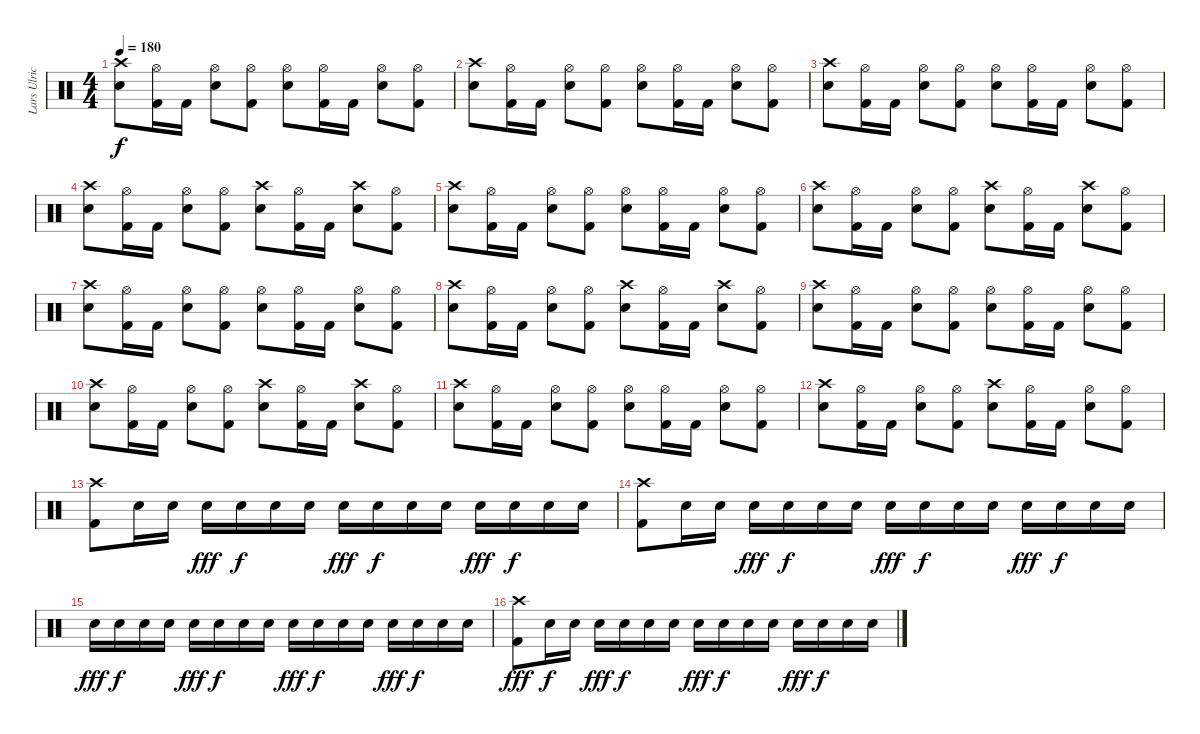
\track ("Lars Ulrich" "Lars Ulric") {instrument percussion}
\staff {score}
\articulation defaults
\ts (4 4)
\tempo 180
\clef neutral
\ks c
("Snare (hit) 2" "Crash high (hit)").8{dy f} ("Kick (hit) 2" "Hi-Hat (open)").16 "Kick (hit) 2".16 ("Snare (hit) 2" "Hi-Hat (open)").8 ("Kick (hit) 2" "Hi-Hat (open)").8 ("Snare (hit) 2" "Hi-Hat (open)").8 ("Kick (hit) 2" "Hi-Hat (open)").16 "Kick (hit) 2".16 ("Snare (hit) 2" "Hi-Hat (open)").8 ("Kick (hit) 2" "Hi-Hat (open)").8 |
("Snare (hit) 2" "Crash high (hit)").8 ("Kick (hit) 2" "Hi-Hat (open)").16 "Kick (hit) 2".16 ("Snare (hit) 2" "Hi-Hat (open)").8 ("Kick (hit) 2" "Hi-Hat (open)").8 ("Snare (hit) 2" "Hi-Hat (open)").8 ("Kick (hit) 2" "Hi-Hat (open)").16 "Kick (hit) 2".16 ("Snare (hit) 2" "Hi-Hat (open)").8 ("Kick (hit) 2" "Hi-Hat (open)").8 |
("Snare (hit) 2" "Crash high (hit)").8 ("Kick (hit) 2" "Hi-Hat (open)").16 "Kick (hit) 2".16 ("Snare (hit) 2" "Hi-Hat (open)").8 ("Kick (hit) 2" "Hi-Hat (open)").8 ("Snare (hit) 2" "Hi-Hat (open)").8 ("Kick (hit) 2" "Hi-Hat (open)").16 "Kick (hit) 2".16 ("Snare (hit) 2" "Hi-Hat (open)").8 ("Kick (hit) 2" "Hi-Hat (open)").8 |
("Snare (hit) 2" "Crash high (hit)").8 ("Kick (hit) 2" "Hi-Hat (open)").16 "Kick (hit) 2".16 ("Snare (hit) 2" "Hi-Hat (open)").8 ("Kick (hit) 2" "Hi-Hat (open)").8 ("Snare (hit) 2" "Crash high (hit)").8 ("Kick (hit) 2" "Hi-Hat (open)").16 "Kick (hit) 2".16 ("Snare (hit) 2" "Crash high (hit)").8 ("Kick (hit) 2" "Hi-Hat (open)").8 |
("Snare (hit) 2" "Crash high (hit)").8 ("Kick (hit) 2" "Hi-Hat (open)").16 "Kick (hit) 2".16 ("Snare (hit) 2" "Hi-Hat (open)").8 ("Kick (hit) 2" "Hi-Hat (open)").8 ("Snare (hit) 2" "Hi-Hat (open)").8 ("Kick (hit) 2" "Hi-Hat (open)").16 "Kick (hit) 2".16 ("Snare (hit) 2" "Hi-Hat (open)").8 ("Kick (hit) 2" "Hi-Hat (open)").8 |
("Snare (hit) 2" "Crash high (hit)").8 ("Kick (hit) 2" "Hi-Hat (open)").16 "Kick (hit) 2".16 ("Snare (hit) 2" "Hi-Hat (open)").8 ("Kick (hit) 2" "Hi-Hat (open)").8 ("Snare (hit) 2" "Crash high (hit)").8 ("Kick (hit) 2" "Hi-Hat (open)").16 "Kick (hit) 2".16 ("Snare (hit) 2" "Crash high (hit)").8 ("Kick (hit) 2" "Hi-Hat (open)").8 |
("Snare (hit) 2" "Crash high (hit)").8 ("Kick (hit) 2" "Hi-Hat (open)").16 "Kick (hit) 2".16 ("Snare (hit) 2" "Hi-Hat (open)").8 ("Kick (hit) 2" "Hi-Hat (open)").8 ("Snare (hit) 2" "Hi-Hat (open)").8 ("Kick (hit) 2" "Hi-Hat (open)").16 "Kick (hit) 2".16 ("Snare (hit) 2" "Hi-Hat (open)").8 ("Kick (hit) 2" "Hi-Hat (open)").8 |
("Snare (hit) 2" "Crash high (hit)").8 ("Kick (hit) 2" "Hi-Hat (open)").16 "Kick (hit) 2".16 ("Snare (hit) 2" "Hi-Hat (open)").8 ("Kick (hit) 2" "Hi-Hat (open)").8 ("Snare (hit) 2" "Crash high (hit)").8 ("Kick (hit) 2" "Hi-Hat (open)").16 "Kick (hit) 2".16 ("Snare (hit) 2" "Crash high (hit)").8 ("Kick (hit) 2" "Hi-Hat (open)").8 |
("Snare (hit) 2" "Crash high (hit)").8 ("Kick (hit) 2" "Hi-Hat (open)").16 "Kick (hit) 2".16 ("Snare (hit) 2" "Hi-Hat (open)").8 ("Kick (hit) 2" "Hi-Hat (open)").8 ("Snare (hit) 2" "Hi-Hat (open)").8 ("Kick (hit) 2" "Hi-Hat (open)").16 "Kick (hit) 2".16 ("Snare (hit) 2" "Hi-Hat (open)").8 ("Kick (hit) 2" "Hi-Hat (open)").8 |
("Snare (hit) 2" "Crash high (hit)").8 ("Kick (hit) 2" "Hi-Hat (open)").16 "Kick (hit) 2".16 ("Snare (hit) 2" "Hi-Hat (open)").8 ("Kick (hit) 2" "Hi-Hat (open)").8 ("Snare (hit) 2" "Crash high (hit)").8 ("Kick (hit) 2" "Hi-Hat (open)").16 "Kick (hit) 2".16 ("Snare (hit) 2" "Crash high (hit)").8 ("Kick (hit) 2" "Hi-Hat (open)").8 |
("Snare (hit) 2" "Crash high (hit)").8 ("Kick (hit) 2" "Hi-Hat (open)").16 "Kick (hit) 2".16 ("Snare (hit) 2" "Hi-Hat (open)").8 ("Kick (hit) 2" "Hi-Hat (open)").8 ("Snare (hit) 2" "Hi-Hat (open)").8 ("Kick (hit) 2" "Hi-Hat (open)").16 "Kick (hit) 2".16 ("Snare (hit) 2" "Hi-Hat (open)").8 ("Kick (hit) 2" "Hi-Hat (open)").8 |
("Snare (hit) 2" "Crash high (hit)").8 ("Kick (hit) 2" "Hi-Hat (open)").16 "Kick (hit) 2".16 ("Snare (hit) 2" "Hi-Hat (open)").8 ("Kick (hit) 2" "Hi-Hat (open)").8 ("Snare (hit) 2" "Crash high (hit)").8 ("Kick (hit) 2" "Hi-Hat (open)").16 "Kick (hit) 2".16 ("Snare (hit) 2" "Hi-Hat (open)").8 ("Kick (hit) 2" "Hi-Hat (open)").8 |
("Kick (hit) 2" "Crash high (hit)").8 "Snare (hit) 2".16 "Snare (hit) 2".16 "Snare (hit) 2".16{dy fff} "Snare (hit) 2".16{dy f} "Snare (hit) 2".16 "Snare (hit) 2".16 "Snare (hit) 2".16{dy fff} "Snare (hit) 2".16{dy f} "Snare (hit) 2".16 "Snare (hit) 2".16 "Snare (hit) 2".16{dy fff} "Snare (hit) 2".16{dy f} "Snare (hit) 2".16 "Snare (hit) 2".16 |
("Kick (hit) 2" "Crash high (hit)").8 "Snare (hit) 2".16 "Snare (hit) 2".16 "Snare (hit) 2".16{dy fff} "Snare (hit) 2".16{dy f} "Snare (hit) 2".16 "Snare (hit) 2".16 "Snare (hit) 2".16{dy fff} "Snare (hit) 2".16{dy f} "Snare (hit) 2".16 "Snare (hit) 2".16 "Snare (hit) 2".16{dy fff} "Snare (hit) 2".16{dy f} "Snare (hit) 2".16 "Snare (hit) 2".16 |
"Snare (hit) 2".16{dy fff} "Snare (hit) 2".16{dy f} "Snare (hit) 2".16 "Snare (hit) 2".16 "Snare (hit) 2".16{dy fff} "Snare (hit) 2".16{dy f} "Snare (hit) 2".16 "Snare (hit) 2".16 "Snare (hit) 2".16{dy fff} "Snare (hit) 2".16{dy f} "Snare (hit) 2".16 "Snare (hit) 2".16 "Snare (hit) 2".16{dy fff} "Snare (hit) 2".16{dy f} "Snare (hit) 2".16 "Snare (hit) 2".16 |
("Kick (hit) 2" "Crash high (hit)").8{dy fff} "Snare (hit) 2".16{dy f} "Snare (hit) 2".16 "Snare (hit) 2".16{dy fff} "Snare (hit) 2".16{dy f} "Snare (hit) 2".16 "Snare (hit) 2".16 "Snare (hit) 2".16{dy fff} "Snare (hit) 2".16{dy f} "Snare (hit) 2".16 "Snare (hit) 2".16 "Snare (hit) 2".16{dy fff} "Snare (hit) 2".16{dy f} "Snare (hit) 2".16 "Snare (hit) 2".16
